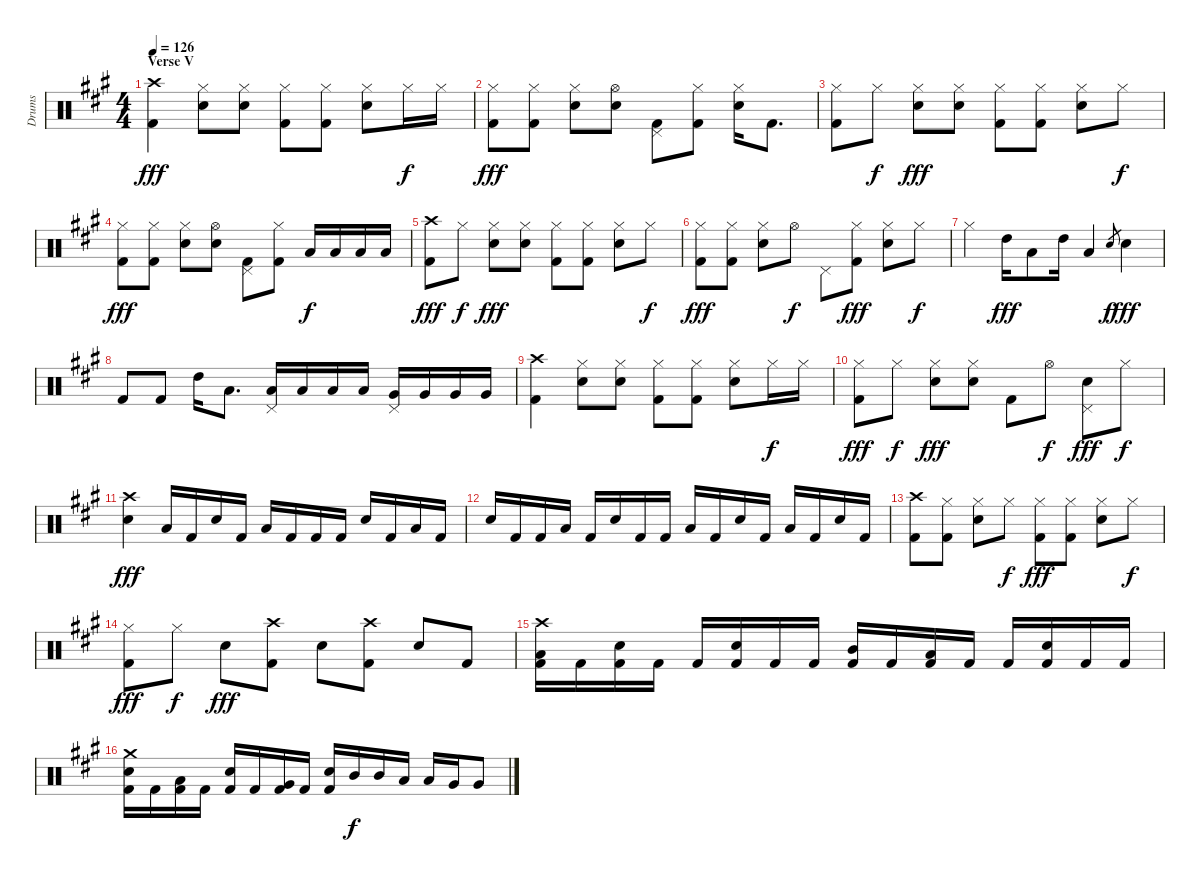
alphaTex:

\track ("Drums" "Drums") {instrument percussion}
\staff {score}
\articulation defaults
\ts (4 4)
\section ("" "Verse V")
\tempo 126
\clef neutral
\ks a
("Crash high (hit)" "Kick (hit) 2").4{dy fff} ("Hi-Hat (closed)" "Snare (hit) 2").8 ("Hi-Hat (closed)" "Snare (hit) 2").8 ("Hi-Hat (closed)" "Kick (hit) 2").8 ("Hi-Hat (closed)" "Kick (hit) 2").8 ("Hi-Hat (closed)" "Snare (hit) 2").8 "Hi-Hat (closed)".16{dy f} "Hi-Hat (closed)".16 |
("Hi-Hat (closed)" "Kick (hit) 2").8{dy fff} ("Hi-Hat (closed)" "Kick (hit) 2").8 ("Hi-Hat (closed)" "Snare (hit) 2").8 ("Hi-Hat (open)" "Snare (hit) 2").8 ("Pedal Hi-Hat (hit)" "Kick (hit) 2").8 ("Hi-Hat (closed)" "Kick (hit) 2").8 ("Hi-Hat (closed)" "Snare (hit) 2").16 "Kick (hit) 2".8{d} |
("Hi-Hat (closed)" "Kick (hit) 2").8 "Hi-Hat (closed)".8{dy f} ("Hi-Hat (closed)" "Snare (hit) 2").8{dy fff} ("Hi-Hat (closed)" "Snare (hit) 2").8 ("Hi-Hat (closed)" "Kick (hit) 2").8 ("Hi-Hat (closed)" "Kick (hit) 2").8 ("Hi-Hat (closed)" "Snare (hit) 2").8 "Hi-Hat (closed)".8{dy f} |
("Hi-Hat (closed)" "Kick (hit) 2").8{dy fff} ("Hi-Hat (closed)" "Kick (hit) 2").8 ("Hi-Hat (closed)" "Snare (hit) 2").8 ("Hi-Hat (open)" "Snare (hit) 2").8 ("Pedal Hi-Hat (hit)" "Kick (hit) 2").8 ("Hi-Hat (closed)" "Kick (hit) 2").8 "Low Tom (hit)".16{dy f} "Low Tom (hit)".16 "Low Tom (hit)".16 "Low Tom (hit)".16 |
("Crash high (hit)" "Kick (hit) 2").8{dy fff} "Hi-Hat (closed)".8{dy f} ("Hi-Hat (closed)" "Snare (hit) 2").8{dy fff} ("Hi-Hat (closed)" "Snare (hit) 2").8 ("Hi-Hat (closed)" "Kick (hit) 2").8 ("Hi-Hat (closed)" "Kick (hit) 2").8 ("Hi-Hat (closed)" "Snare (hit) 2").8 "Hi-Hat (closed)".8{dy f} |
("Hi-Hat (closed)" "Kick (hit) 2").8{dy fff} ("Hi-Hat (closed)" "Kick (hit) 2").8 ("Hi-Hat (closed)" "Snare (hit) 2").8 "Hi-Hat (open)".8{dy f} "Pedal Hi-Hat (hit)".8 ("Hi-Hat (closed)" "Kick (hit) 2").8{dy fff} ("Hi-Hat (closed)" "Snare (hit) 2").8 "Hi-Hat (closed)".8{dy f} |
"Hi-Hat (closed)".4 "High Tom (hit)".16{dy fff} "Low Tom (hit)".8 "High Tom (hit)".16 "Low Tom (hit)".4 "Snare (hit) 2".8{gr dy f} "Snare (hit) 2".4{dy fff} |
"Kick (hit) 2".8 "Kick (hit) 2".8 "High Tom (hit)".16 "Low Tom (hit)".8{d} ("Pedal Hi-Hat (hit)" "Low Tom (hit)").16 "Low Tom (hit)".16 "Low Tom (hit)".16 "Low Tom (hit)".16 ("Pedal Hi-Hat (hit)" "Very Low Tom (hit)").16 "Very Low Tom (hit)".16 "Very Low Tom (hit)".16 "Very Low Tom (hit)".16 |
("Crash high (hit)" "Kick (hit) 2").4 ("Hi-Hat (closed)" "Snare (hit) 2").8 ("Hi-Hat (closed)" "Snare (hit) 2").8 ("Hi-Hat (closed)" "Kick (hit) 2").8 ("Hi-Hat (closed)" "Kick (hit) 2").8 ("Hi-Hat (closed)" "Snare (hit) 2").8 "Hi-Hat (closed)".16{dy f} "Hi-Hat (closed)".16 |
("Hi-Hat (closed)" "Kick (hit) 2").8{dy fff} "Hi-Hat (closed)".8{dy f} ("Hi-Hat (closed)" "Snare (hit) 2").8{dy fff} ("Hi-Hat (closed)" "Snare (hit) 2").8 "Kick (hit) 2".8 "Hi-Hat (open)".8{dy f} ("Pedal Hi-Hat (hit)" "Snare (hit) 2").8{dy fff} "Hi-Hat (closed)".8{dy f} |
("Crash high (hit)" "Snare (hit) 2").4{dy fff} "Low Tom (hit)".16 "Kick (hit) 2".16 "Snare (hit) 2".16 "Kick (hit) 2".16 "Low Tom (hit)".16 "Kick (hit) 2".16 "Kick (hit) 2".16 "Kick (hit) 2".16 "Snare (hit) 2".16 "Kick (hit) 2".16 "Low Tom (hit)".16 "Kick (hit) 2".16 |
"Snare (hit) 2".16 "Kick (hit) 2".16 "Kick (hit) 2".16 "Low Tom (hit)".16 "Kick (hit) 2".16 "Snare (hit) 2".16 "Kick (hit) 2".16 "Kick (hit) 2".16 "Low Tom (hit)".16 "Kick (hit) 2".16 "Snare (hit) 2".16 "Kick (hit) 2".16 "Low Tom (hit)".16 "Kick (hit) 2".16 "Snare (hit) 2".16 "Kick (hit) 2".16 |
("Crash high (hit)" "Kick (hit) 2").8 ("Hi-Hat (closed)" "Kick (hit) 2").8 ("Hi-Hat (closed)" "Snare (hit) 2").8 "Hi-Hat (closed)".8{dy f} ("Hi-Hat (closed)" "Kick (hit) 2").8{dy fff} ("Hi-Hat (closed)" "Kick (hit) 2").8 ("Hi-Hat (closed)" "Snare (hit) 2").8 "Hi-Hat (closed)".8{dy f} |
("Hi-Hat (closed)" "Kick (hit) 2").8{dy fff} "Hi-Hat (closed)".8{dy f} "Snare (hit) 2".8{dy fff} ("Crash high (hit)" "Kick (hit) 2").8 "Snare (hit) 2".8 ("Crash high (hit)" "Kick (hit) 2").8 "Snare (hit) 2".8 "Kick (hit) 2".8 |
("Crash high (hit)" "Low Tom (hit)" "Kick (hit) 2").16 "Kick (hit) 2".16 ("Snare (hit) 2" "Kick (hit) 2").16 "Kick (hit) 2".16 "Kick (hit) 2".16 ("Snare (hit) 2" "Kick (hit) 2").16 "Kick (hit) 2".16 "Kick (hit) 2".16 ("Mid Tom (hit)" "Kick (hit) 2").16 "Kick (hit) 2".16 ("Low Tom (hit)" "Kick (hit) 2").16 "Kick (hit) 2".16 "Kick (hit) 2".16 ("Snare (hit) 2" "Kick (hit) 2").16 "Kick (hit) 2".16 "Kick (hit) 2".16 |
("Crash medium (hit)" "Snare (hit) 2" "Kick (hit) 2").16 "Kick (hit) 2".16 ("Low Tom (hit)" "Kick (hit) 2").16 "Kick (hit) 2".16 ("Snare (hit) 2" "Kick (hit) 2").16 "Kick (hit) 2".16 ("Very Low Tom (hit)" "Kick (hit) 2").16 "Kick (hit) 2".16 ("Snare (hit) 2" "Kick (hit) 2").16 "Mid Tom (hit)".16{dy f} "Mid Tom (hit)".16 "Low Tom (hit)".16 "Low Tom (hit)".16 "Very Low Tom (hit)".16 "Very Low Tom (hit)".8
